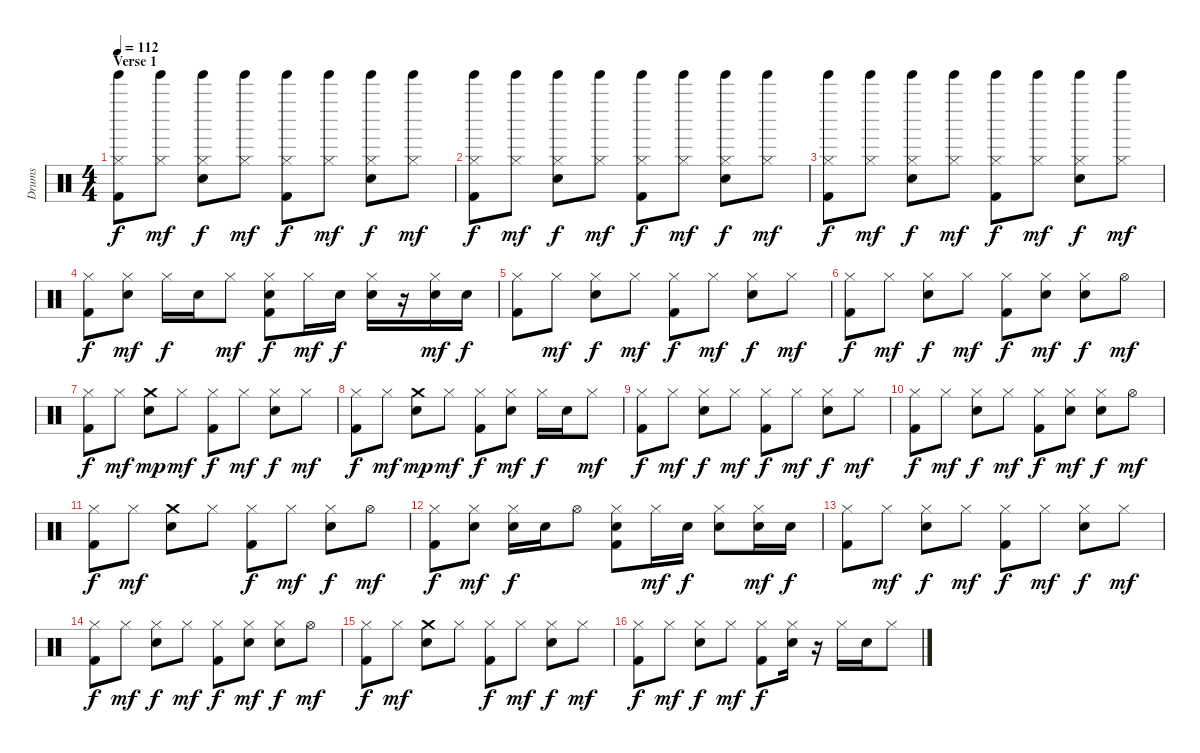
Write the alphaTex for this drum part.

\track ("Drums" "Drums") {instrument percussion}
\staff {score}
\articulation defaults
\ts (4 4)
\section ("" "Verse 1")
\tempo 112
\clef neutral
\ks c
("Hi-Hat (closed)" "Tinkle Bell (hit)" "Kick (hit) 2").8{dy f} ("Hi-Hat (closed)" "Tinkle Bell (hit)").8{dy mf} ("Hi-Hat (closed)" "Tinkle Bell (hit)" "Snare (hit) 2").8{dy f} ("Hi-Hat (closed)" "Tinkle Bell (hit)").8{dy mf} ("Hi-Hat (closed)" "Tinkle Bell (hit)" "Kick (hit) 2").8{dy f} ("Hi-Hat (closed)" "Tinkle Bell (hit)").8{dy mf} ("Hi-Hat (closed)" "Tinkle Bell (hit)" "Snare (hit) 2").8{dy f} ("Hi-Hat (closed)" "Tinkle Bell (hit)").8{dy mf} |
("Hi-Hat (closed)" "Tinkle Bell (hit)" "Kick (hit) 2").8{dy f} ("Hi-Hat (closed)" "Tinkle Bell (hit)").8{dy mf} ("Hi-Hat (closed)" "Tinkle Bell (hit)" "Snare (hit) 2").8{dy f} ("Hi-Hat (closed)" "Tinkle Bell (hit)").8{dy mf} ("Hi-Hat (closed)" "Tinkle Bell (hit)" "Kick (hit) 2").8{dy f} ("Hi-Hat (closed)" "Tinkle Bell (hit)").8{dy mf} ("Hi-Hat (closed)" "Tinkle Bell (hit)" "Snare (hit) 2").8{dy f} ("Hi-Hat (closed)" "Tinkle Bell (hit)").8{dy mf} |
("Hi-Hat (closed)" "Tinkle Bell (hit)" "Kick (hit) 2").8{dy f} ("Hi-Hat (closed)" "Tinkle Bell (hit)").8{dy mf} ("Hi-Hat (closed)" "Tinkle Bell (hit)" "Snare (hit) 2").8{dy f} ("Hi-Hat (closed)" "Tinkle Bell (hit)").8{dy mf} ("Hi-Hat (closed)" "Tinkle Bell (hit)" "Kick (hit) 2").8{dy f} ("Hi-Hat (closed)" "Tinkle Bell (hit)").8{dy mf} ("Hi-Hat (closed)" "Tinkle Bell (hit)" "Snare (hit) 2").8{dy f} ("Hi-Hat (closed)" "Tinkle Bell (hit)").8{dy mf} |
("Hi-Hat (closed)" "Kick (hit) 2").8{dy f} ("Hi-Hat (closed)" "Snare (hit) 2").8{dy mf} "Hi-Hat (closed)".16{dy f} "Snare (hit) 2".16 "Hi-Hat (closed)".8{dy mf} ("Hi-Hat (closed)" "Snare (hit) 2" "Kick (hit) 2").8{dy f} "Hi-Hat (closed)".16{dy mf} "Snare (hit) 2".16{dy f} ("Hi-Hat (closed)" "Snare (hit) 2").16 r.16 ("Hi-Hat (closed)" "Snare (hit) 2").16{dy mf} "Snare (hit) 2".16{dy f} |
("Hi-Hat (closed)" "Kick (hit) 2").8 "Hi-Hat (closed)".8{dy mf} ("Hi-Hat (closed)" "Snare (hit) 2").8{dy f} "Hi-Hat (closed)".8{dy mf} ("Hi-Hat (closed)" "Kick (hit) 2").8{dy f} "Hi-Hat (closed)".8{dy mf} ("Hi-Hat (closed)" "Snare (hit) 2").8{dy f} "Hi-Hat (closed)".8{dy mf} |
("Hi-Hat (closed)" "Kick (hit) 2").8{dy f} "Hi-Hat (closed)".8{dy mf} ("Hi-Hat (closed)" "Snare (hit) 2").8{dy f} "Hi-Hat (closed)".8{dy mf} ("Hi-Hat (closed)" "Kick (hit) 2").8{dy f} ("Hi-Hat (closed)" "Snare (hit) 2").8{dy mf} ("Hi-Hat (closed)" "Snare (hit) 2").8{dy f} "Hi-Hat (open)".8{dy mf} |
("Hi-Hat (closed)" "Kick (hit) 2").8{dy f} "Hi-Hat (closed)".8{dy mf} ("Crash medium (hit)" "Snare (hit) 2").8{dy mp} "Hi-Hat (closed)".8{dy mf} ("Hi-Hat (closed)" "Kick (hit) 2").8{dy f} "Hi-Hat (closed)".8{dy mf} ("Hi-Hat (closed)" "Snare (hit) 2").8{dy f} "Hi-Hat (closed)".8{dy mf} |
("Hi-Hat (closed)" "Kick (hit) 2").8{dy f} "Hi-Hat (closed)".8{dy mf} ("Crash medium (hit)" "Snare (hit) 2").8{dy mp} "Hi-Hat (closed)".8{dy mf} ("Hi-Hat (closed)" "Kick (hit) 2").8{dy f} ("Hi-Hat (closed)" "Snare (hit) 2").8{dy mf} "Hi-Hat (closed)".16{dy f} "Snare (hit) 2".16 "Hi-Hat (closed)".8{dy mf} |
("Hi-Hat (closed)" "Kick (hit) 2").8{dy f} "Hi-Hat (closed)".8{dy mf} ("Hi-Hat (closed)" "Snare (hit) 2").8{dy f} "Hi-Hat (closed)".8{dy mf} ("Hi-Hat (closed)" "Kick (hit) 2").8{dy f} "Hi-Hat (closed)".8{dy mf} ("Hi-Hat (closed)" "Snare (hit) 2").8{dy f} "Hi-Hat (closed)".8{dy mf} |
("Hi-Hat (closed)" "Kick (hit) 2").8{dy f} "Hi-Hat (closed)".8{dy mf} ("Hi-Hat (closed)" "Snare (hit) 2").8{dy f} "Hi-Hat (closed)".8{dy mf} ("Hi-Hat (closed)" "Kick (hit) 2").8{dy f} ("Hi-Hat (closed)" "Snare (hit) 2").8{dy mf} ("Hi-Hat (closed)" "Snare (hit) 2").8{dy f} "Hi-Hat (open)".8{dy mf} |
("Hi-Hat (closed)" "Kick (hit) 2").8{dy f} "Hi-Hat (closed)".8{dy mf} ("Crash medium (hit)" "Snare (hit) 2").8 "Hi-Hat (closed)".8 ("Hi-Hat (closed)" "Kick (hit) 2").8{dy f} "Hi-Hat (closed)".8{dy mf} ("Hi-Hat (closed)" "Snare (hit) 2").8{dy f} "Hi-Hat (open)".8{dy mf} |
("Hi-Hat (closed)" "Kick (hit) 2").8{dy f} ("Hi-Hat (closed)" "Snare (hit) 2").8{dy mf} ("Hi-Hat (closed)" "Snare (hit) 2").16{dy f} "Snare (hit) 2".16 "Hi-Hat (open)".8 ("Hi-Hat (closed)" "Snare (hit) 2" "Kick (hit) 2").8 "Hi-Hat (closed)".16{dy mf} "Snare (hit) 2".16{dy f} ("Hi-Hat (closed)" "Snare (hit) 2").8 ("Hi-Hat (closed)" "Snare (hit) 2").16{dy mf} "Snare (hit) 2".16{dy f} |
("Hi-Hat (closed)" "Kick (hit) 2").8 "Hi-Hat (closed)".8{dy mf} ("Hi-Hat (closed)" "Snare (hit) 2").8{dy f} "Hi-Hat (closed)".8{dy mf} ("Hi-Hat (closed)" "Kick (hit) 2").8{dy f} "Hi-Hat (closed)".8{dy mf} ("Hi-Hat (closed)" "Snare (hit) 2").8{dy f} "Hi-Hat (closed)".8{dy mf} |
("Hi-Hat (closed)" "Kick (hit) 2").8{dy f} "Hi-Hat (closed)".8{dy mf} ("Hi-Hat (closed)" "Snare (hit) 2").8{dy f} "Hi-Hat (closed)".8{dy mf} ("Hi-Hat (closed)" "Kick (hit) 2").8{dy f} ("Hi-Hat (closed)" "Snare (hit) 2").8{dy mf} ("Hi-Hat (closed)" "Snare (hit) 2").8{dy f} "Hi-Hat (open)".8{dy mf} |
("Hi-Hat (closed)" "Kick (hit) 2").8{dy f} "Hi-Hat (closed)".8{dy mf} ("Crash medium (hit)" "Snare (hit) 2").8 "Hi-Hat (closed)".8 ("Hi-Hat (closed)" "Kick (hit) 2").8{dy f} "Hi-Hat (closed)".8{dy mf} ("Hi-Hat (closed)" "Snare (hit) 2").8{dy f} "Hi-Hat (closed)".8{dy mf} |
("Hi-Hat (closed)" "Kick (hit) 2").8{dy f} "Hi-Hat (closed)".8{dy mf} ("Hi-Hat (closed)" "Snare (hit) 2").8{dy f} "Hi-Hat (closed)".8{dy mf} ("Hi-Hat (closed)" "Kick (hit) 2").8{dy f} ("Hi-Hat (closed)" "Snare (hit) 2").16 r.16 "Hi-Hat (closed)".16 "Snare (hit) 2".16 "Hi-Hat (closed)".8
